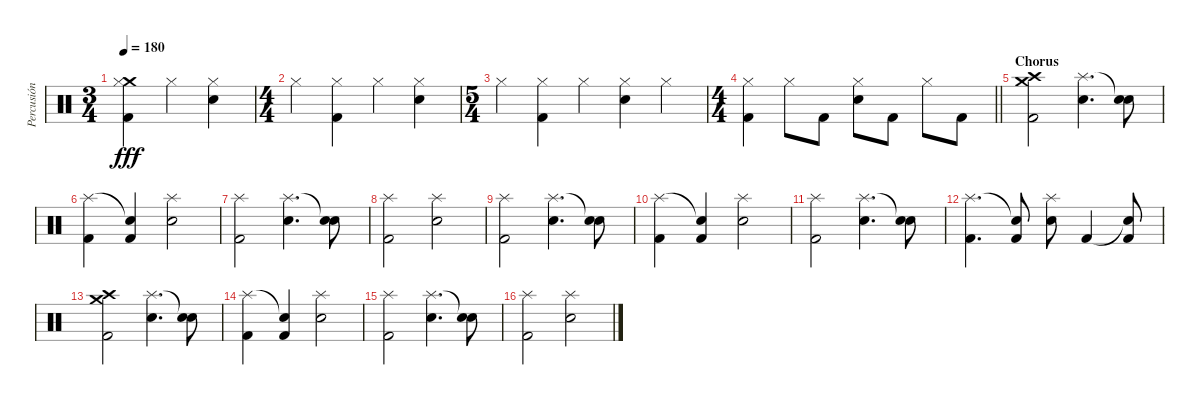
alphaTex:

\track ("Percusión" "Percusión") {instrument percussion}
\staff {score}
\articulation defaults
\ts (3 4)
\tempo 180
\clef neutral
\ks c
("Crash medium (hit)" "Hi-Hat (closed)" "Kick (hit) 2").4{dy fff} "Hi-Hat (closed)".4 ("Hi-Hat (closed)" "Electric Snare (hit)").4 |
\ts (4 4)
"Hi-Hat (closed)".4 ("Hi-Hat (closed)" "Kick (hit) 2").4 "Hi-Hat (closed)".4 ("Hi-Hat (closed)" "Electric Snare (hit)").4 |
\ts (5 4)
"Hi-Hat (closed)".4 ("Hi-Hat (closed)" "Kick (hit) 2").4 "Hi-Hat (closed)".4 ("Hi-Hat (closed)" "Electric Snare (hit)").4 "Hi-Hat (closed)".4 |
\ts (4 4)
\barLineRight lightlight
("Hi-Hat (closed)" "Kick (hit) 2").4 "Hi-Hat (closed)".8 "Kick (hit) 2".8 ("Hi-Hat (closed)" "Electric Snare (hit)").8 "Kick (hit) 2".8 "Hi-Hat (closed)".8 "Kick (hit) 2".8 |
\section ("" "Chorus")
("Crash medium (hit)" "Crash high (hit)" "Kick (hit) 2").2 ("Splash (hit)" "Electric Snare (hit)").4{d} ("Snare (hit)"{t} "Electric Snare (hit)").8 |
("Splash (hit)" "Kick (hit) 2").4 ("Snare (hit)"{t} "Kick (hit) 2").4 ("Splash (hit)" "Electric Snare (hit)").2 |
("Splash (hit)" "Kick (hit) 2").2 ("Splash (hit)" "Electric Snare (hit)").4{d} ("Snare (hit)"{t} "Electric Snare (hit)").8 |
("Splash (hit)" "Kick (hit) 2").2 ("Splash (hit)" "Electric Snare (hit)").2 |
("Splash (hit)" "Kick (hit) 2").2 ("Splash (hit)" "Electric Snare (hit)").4{d} ("Snare (hit)"{t} "Electric Snare (hit)").8 |
("Splash (hit)" "Kick (hit) 2").4 ("Snare (hit)"{t} "Kick (hit) 2").4 ("Splash (hit)" "Electric Snare (hit)").2 |
("Splash (hit)" "Kick (hit) 2").2 ("Splash (hit)" "Electric Snare (hit)").4{d} ("Snare (hit)"{t} "Electric Snare (hit)").8 |
("Splash (hit)" "Kick (hit) 2").4{d} ("Snare (hit)"{t} "Kick (hit) 2").8 ("Splash (hit)" "Electric Snare (hit)").8 "Kick (hit) 2".4 ("Snare (hit)"{t} "Kick (hit) 2").8 |
("Crash medium (hit)" "Crash high (hit)" "Kick (hit) 2").2 ("Splash (hit)" "Electric Snare (hit)").4{d} ("Snare (hit)"{t} "Electric Snare (hit)").8 |
("Splash (hit)" "Kick (hit) 2").4 ("Snare (hit)"{t} "Kick (hit) 2").4 ("Splash (hit)" "Electric Snare (hit)").2 |
("Splash (hit)" "Kick (hit) 2").2 ("Splash (hit)" "Electric Snare (hit)").4{d} ("Snare (hit)"{t} "Electric Snare (hit)").8 |
("Splash (hit)" "Kick (hit) 2").2 ("Splash (hit)" "Electric Snare (hit)").2
